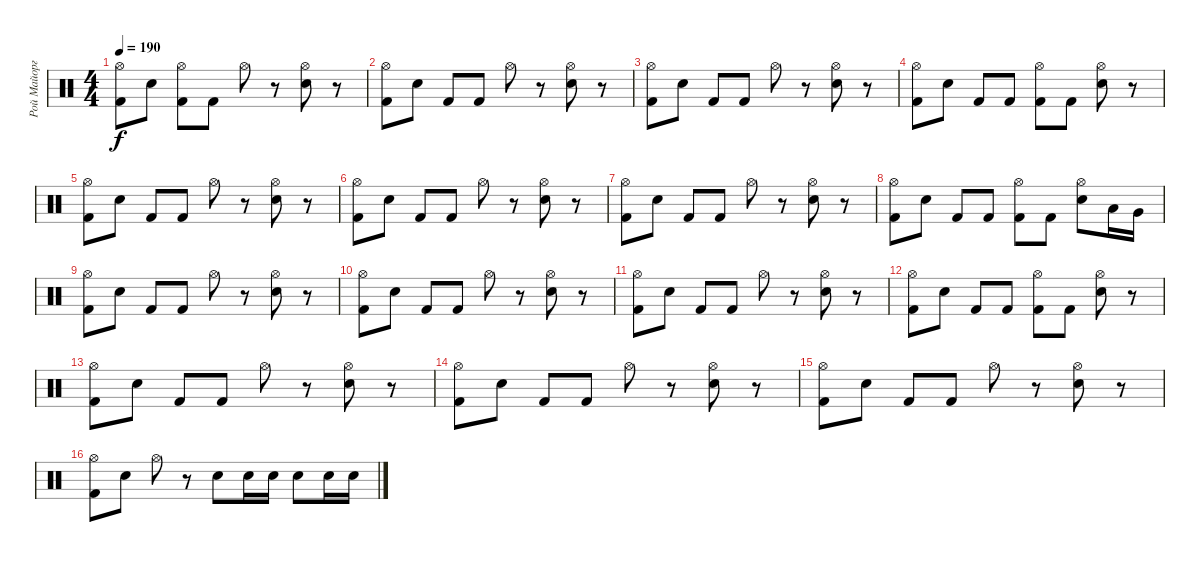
\track ("Рой Майорга" "Рой Майорг") {instrument percussion}
\staff {score}
\articulation defaults
\ts (4 4)
\tempo 190
\clef neutral
\ks c
("Hi-Hat (open)" "Kick (hit) 2").8{dy f} "Electric Snare (hit)".8 ("Hi-Hat (open)" "Kick (hit) 2").8 "Kick (hit) 2".8 "Hi-Hat (open)".8 r.8 ("Hi-Hat (open)" "Electric Snare (hit)").8 r.8 |
("Hi-Hat (open)" "Kick (hit) 2").8 "Electric Snare (hit)".8 "Kick (hit) 2".8 "Kick (hit) 2".8 "Hi-Hat (open)".8 r.8 ("Hi-Hat (open)" "Electric Snare (hit)").8 r.8 |
("Hi-Hat (open)" "Kick (hit) 2").8 "Electric Snare (hit)".8 "Kick (hit) 2".8 "Kick (hit) 2".8 "Hi-Hat (open)".8 r.8 ("Hi-Hat (open)" "Electric Snare (hit)").8 r.8 |
("Hi-Hat (open)" "Kick (hit) 2").8 "Electric Snare (hit)".8 "Kick (hit) 2".8 "Kick (hit) 2".8 ("Hi-Hat (open)" "Kick (hit) 2").8 "Kick (hit) 2".8 ("Hi-Hat (open)" "Electric Snare (hit)").8 r.8 |
("Hi-Hat (open)" "Kick (hit) 2").8 "Electric Snare (hit)".8 "Kick (hit) 2".8 "Kick (hit) 2".8 "Hi-Hat (open)".8 r.8 ("Hi-Hat (open)" "Electric Snare (hit)").8 r.8 |
("Hi-Hat (open)" "Kick (hit) 2").8 "Electric Snare (hit)".8 "Kick (hit) 2".8 "Kick (hit) 2".8 "Hi-Hat (open)".8 r.8 ("Hi-Hat (open)" "Electric Snare (hit)").8 r.8 |
("Hi-Hat (open)" "Kick (hit) 2").8 "Electric Snare (hit)".8 "Kick (hit) 2".8 "Kick (hit) 2".8 "Hi-Hat (open)".8 r.8 ("Hi-Hat (open)" "Electric Snare (hit)").8 r.8 |
("Hi-Hat (open)" "Kick (hit) 2").8 "Electric Snare (hit)".8 "Kick (hit) 2".8 "Kick (hit) 2".8 ("Hi-Hat (open)" "Kick (hit) 2").8 "Kick (hit) 2".8 ("Hi-Hat (open)" "Electric Snare (hit)").8 "Low Tom (hit)".16 "Very Low Tom (hit)".16 |
("Hi-Hat (open)" "Kick (hit) 2").8 "Electric Snare (hit)".8 "Kick (hit) 2".8 "Kick (hit) 2".8 "Hi-Hat (open)".8 r.8 ("Hi-Hat (open)" "Electric Snare (hit)").8 r.8 |
("Hi-Hat (open)" "Kick (hit) 2").8 "Electric Snare (hit)".8 "Kick (hit) 2".8 "Kick (hit) 2".8 "Hi-Hat (open)".8 r.8 ("Hi-Hat (open)" "Electric Snare (hit)").8 r.8 |
("Hi-Hat (open)" "Kick (hit) 2").8 "Electric Snare (hit)".8 "Kick (hit) 2".8 "Kick (hit) 2".8 "Hi-Hat (open)".8 r.8 ("Hi-Hat (open)" "Electric Snare (hit)").8 r.8 |
("Hi-Hat (open)" "Kick (hit) 2").8 "Electric Snare (hit)".8 "Kick (hit) 2".8 "Kick (hit) 2".8 ("Hi-Hat (open)" "Kick (hit) 2").8 "Kick (hit) 2".8 ("Hi-Hat (open)" "Electric Snare (hit)").8 r.8 |
("Hi-Hat (open)" "Kick (hit) 2").8 "Electric Snare (hit)".8 "Kick (hit) 2".8 "Kick (hit) 2".8 "Hi-Hat (open)".8 r.8 ("Hi-Hat (open)" "Electric Snare (hit)").8 r.8 |
("Hi-Hat (open)" "Kick (hit) 2").8 "Electric Snare (hit)".8 "Kick (hit) 2".8 "Kick (hit) 2".8 "Hi-Hat (open)".8 r.8 ("Hi-Hat (open)" "Electric Snare (hit)").8 r.8 |
("Hi-Hat (open)" "Kick (hit) 2").8 "Electric Snare (hit)".8 "Kick (hit) 2".8 "Kick (hit) 2".8 "Hi-Hat (open)".8 r.8 ("Hi-Hat (open)" "Electric Snare (hit)").8 r.8 |
("Hi-Hat (open)" "Kick (hit) 2").8 "Electric Snare (hit)".8 "Hi-Hat (open)".8 r.8 "Electric Snare (hit)".8 "Electric Snare (hit)".16 "Electric Snare (hit)".16 "Electric Snare (hit)".8 "Electric Snare (hit)".16 "Electric Snare (hit)".16
